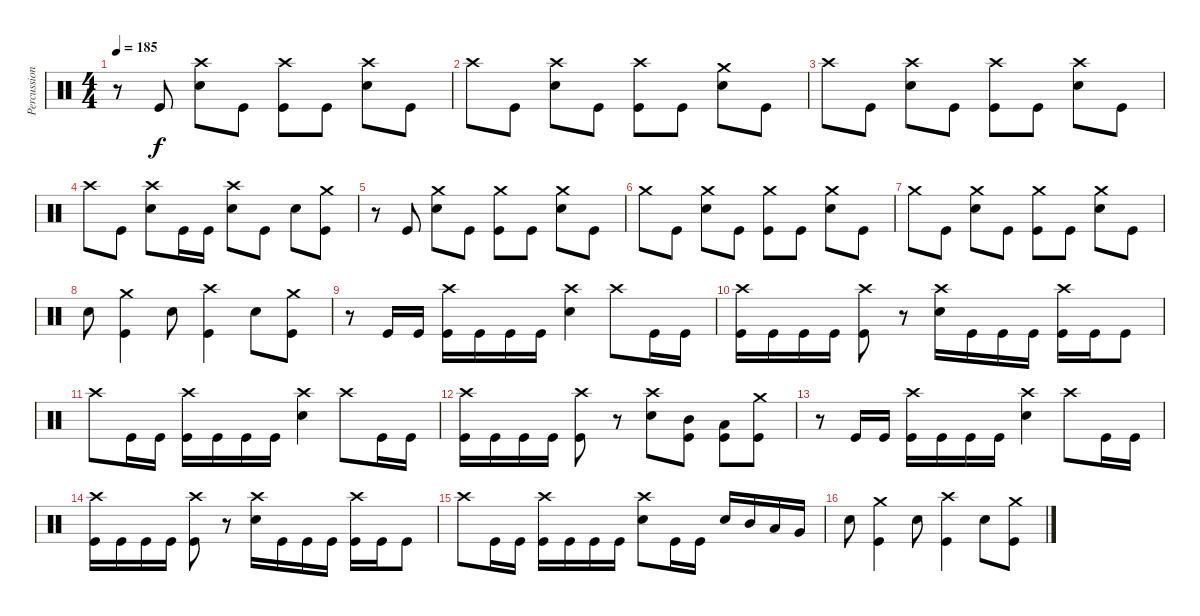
\track ("Percussion" "Percussion") {instrument percussion}
\staff {score}
\articulation defaults
\ts (4 4)
\tempo 185
\clef neutral
\ks c
r.8{dy f} "Kick (hit)".8 ("Crash high (hit)" "Electric Snare (hit)").8 "Kick (hit)".8 ("Crash high (hit)" "Kick (hit)").8 "Kick (hit)".8 ("Crash high (hit)" "Electric Snare (hit)").8 "Kick (hit)".8 |
"Crash high (hit)".8 "Kick (hit)".8 ("Crash high (hit)" "Electric Snare (hit)").8 "Kick (hit)".8 ("Crash high (hit)" "Kick (hit)").8 "Kick (hit)".8 ("Crash medium (hit)" "Electric Snare (hit)").8 "Kick (hit)".8 |
"Crash high (hit)".8 "Kick (hit)".8 ("Crash high (hit)" "Electric Snare (hit)").8 "Kick (hit)".8 ("Crash high (hit)" "Kick (hit)").8 "Kick (hit)".8 ("Crash high (hit)" "Electric Snare (hit)").8 "Kick (hit)".8 |
"Crash high (hit)".8 "Kick (hit)".8 ("Crash high (hit)" "Electric Snare (hit)").8 "Kick (hit)".16 "Kick (hit)".16 ("Crash high (hit)" "Electric Snare (hit)").8 "Kick (hit)".8 "Electric Snare (hit)".8 ("Crash medium (hit)" "Kick (hit)").8 |
r.8 "Kick (hit)".8 ("Crash medium (hit)" "Electric Snare (hit)").8 "Kick (hit)".8 ("Crash medium (hit)" "Kick (hit)").8 "Kick (hit)".8 ("Crash medium (hit)" "Electric Snare (hit)").8 "Kick (hit)".8 |
"Crash medium (hit)".8 "Kick (hit)".8 ("Crash medium (hit)" "Electric Snare (hit)").8 "Kick (hit)".8 ("Crash medium (hit)" "Kick (hit)").8 "Kick (hit)".8 ("Crash medium (hit)" "Electric Snare (hit)").8 "Kick (hit)".8 |
"Crash medium (hit)".8 "Kick (hit)".8 ("Crash medium (hit)" "Electric Snare (hit)").8 "Kick (hit)".8 ("Crash medium (hit)" "Kick (hit)").8 "Kick (hit)".8 ("Crash medium (hit)" "Electric Snare (hit)").8 "Kick (hit)".8 |
"Electric Snare (hit)".8 ("Crash medium (hit)" "Kick (hit)").4 "Electric Snare (hit)".8 ("Crash high (hit)" "Kick (hit)").4 "Electric Snare (hit)".8 ("Crash medium (hit)" "Kick (hit)").8 |
r.8 "Kick (hit)".16 "Kick (hit)".16 ("Crash high (hit)" "Kick (hit)").16 "Kick (hit)".16 "Kick (hit)".16 "Kick (hit)".16 ("Crash high (hit)" "Electric Snare (hit)").4 "Crash high (hit)".8 "Kick (hit)".16 "Kick (hit)".16 |
("Crash high (hit)" "Kick (hit)").16 "Kick (hit)".16 "Kick (hit)".16 "Kick (hit)".16 ("Crash high (hit)" "Kick (hit)").8 r.8 ("Crash high (hit)" "Electric Snare (hit)").16 "Kick (hit)".16 "Kick (hit)".16 "Kick (hit)".16 ("Crash high (hit)" "Kick (hit)").16 "Kick (hit)".16 "Kick (hit)".8 |
"Crash high (hit)".8 "Kick (hit)".16 "Kick (hit)".16 ("Crash high (hit)" "Kick (hit)").16 "Kick (hit)".16 "Kick (hit)".16 "Kick (hit)".16 ("Crash high (hit)" "Electric Snare (hit)").4 "Crash high (hit)".8 "Kick (hit)".16 "Kick (hit)".16 |
("Crash high (hit)" "Kick (hit)").16 "Kick (hit)".16 "Kick (hit)".16 "Kick (hit)".16 ("Crash high (hit)" "Kick (hit)").8 r.8 ("Crash high (hit)" "Electric Snare (hit)").8 ("Mid Tom (hit)" "Kick (hit)").8 ("Low Tom (hit)" "Kick (hit)").8 ("Crash medium (hit)" "Kick (hit)").8 |
r.8 "Kick (hit)".16 "Kick (hit)".16 ("Crash high (hit)" "Kick (hit)").16 "Kick (hit)".16 "Kick (hit)".16 "Kick (hit)".16 ("Crash high (hit)" "Electric Snare (hit)").4 "Crash high (hit)".8 "Kick (hit)".16 "Kick (hit)".16 |
("Crash high (hit)" "Kick (hit)").16 "Kick (hit)".16 "Kick (hit)".16 "Kick (hit)".16 ("Crash high (hit)" "Kick (hit)").8 r.8 ("Crash high (hit)" "Electric Snare (hit)").16 "Kick (hit)".16 "Kick (hit)".16 "Kick (hit)".16 ("Crash high (hit)" "Kick (hit)").16 "Kick (hit)".16 "Kick (hit)".8 |
"Crash high (hit)".8 "Kick (hit)".16 "Kick (hit)".16 ("Crash high (hit)" "Kick (hit)").16 "Kick (hit)".16 "Kick (hit)".16 "Kick (hit)".16 ("Crash high (hit)" "Electric Snare (hit)").8 "Kick (hit)".16 "Kick (hit)".16 "Electric Snare (hit)".16 "Mid Tom (hit)".16 "Low Tom (hit)".16 "Very Low Tom (hit)".16 |
"Electric Snare (hit)".8 ("Crash medium (hit)" "Kick (hit)").4 "Electric Snare (hit)".8 ("Crash high (hit)" "Kick (hit)").4 "Electric Snare (hit)".8 ("Crash medium (hit)" "Kick (hit)").8
